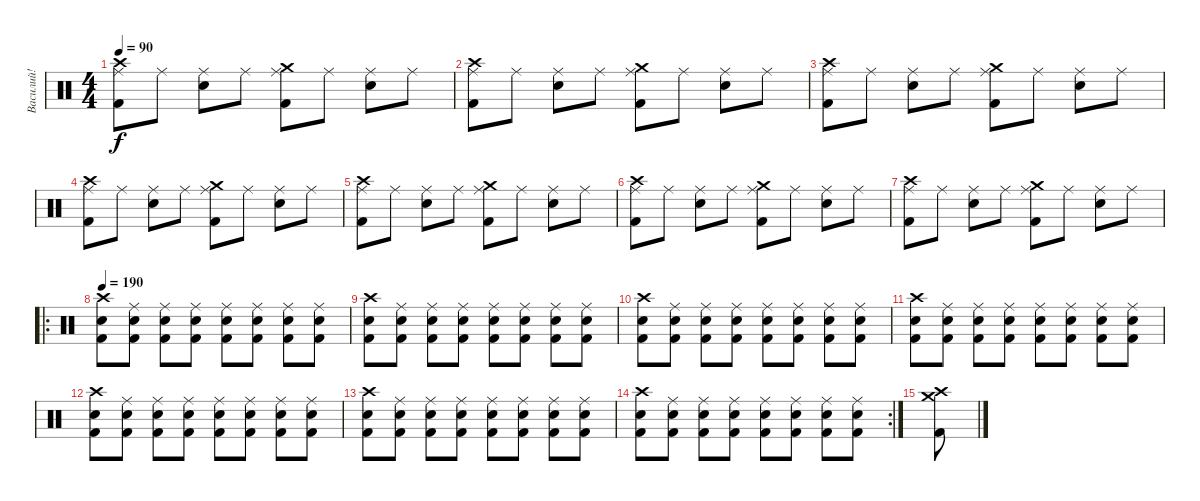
\track ("Василий!" "Василий!") {instrument percussion}
\staff {score}
\articulation defaults
\ts (4 4)
\tempo 90
\clef neutral
\ks c
("Ride (middle)" "Kick (hit) 2" "Crash high (hit)").8{dy f} "Ride (middle)".8 ("Ride (middle)" "Electric Snare (hit)").8 "Ride (middle)".8 ("Ride (middle)" "Kick (hit) 2" "Crash medium (hit)").8 "Ride (middle)".8 ("Ride (middle)" "Electric Snare (hit)").8 "Ride (middle)".8 |
("Ride (middle)" "Kick (hit) 2" "Crash high (hit)").8 "Ride (middle)".8 ("Ride (middle)" "Electric Snare (hit)").8 "Ride (middle)".8 ("Ride (middle)" "Kick (hit) 2" "Crash medium (hit)").8 "Ride (middle)".8 ("Ride (middle)" "Electric Snare (hit)").8 "Ride (middle)".8 |
("Ride (middle)" "Kick (hit) 2" "Crash high (hit)").8 "Ride (middle)".8 ("Ride (middle)" "Electric Snare (hit)").8 "Ride (middle)".8 ("Ride (middle)" "Kick (hit) 2" "Crash medium (hit)").8 "Ride (middle)".8 ("Ride (middle)" "Electric Snare (hit)").8 "Ride (middle)".8 |
("Ride (middle)" "Kick (hit) 2" "Crash high (hit)").8 "Ride (middle)".8 ("Ride (middle)" "Electric Snare (hit)").8 "Ride (middle)".8 ("Ride (middle)" "Kick (hit) 2" "Crash medium (hit)").8 "Ride (middle)".8 ("Ride (middle)" "Electric Snare (hit)").8 "Ride (middle)".8 |
("Ride (middle)" "Kick (hit) 2" "Crash high (hit)").8 "Ride (middle)".8 ("Ride (middle)" "Electric Snare (hit)").8 "Ride (middle)".8 ("Ride (middle)" "Kick (hit) 2" "Crash medium (hit)").8 "Ride (middle)".8 ("Ride (middle)" "Electric Snare (hit)").8 "Ride (middle)".8 |
("Ride (middle)" "Kick (hit) 2" "Crash high (hit)").8 "Ride (middle)".8 ("Ride (middle)" "Electric Snare (hit)").8 "Ride (middle)".8 ("Ride (middle)" "Kick (hit) 2" "Crash medium (hit)").8 "Ride (middle)".8 ("Ride (middle)" "Electric Snare (hit)").8 "Ride (middle)".8 |
("Ride (middle)" "Kick (hit) 2" "Crash high (hit)").8 "Ride (middle)".8 ("Ride (middle)" "Electric Snare (hit)").8 "Ride (middle)".8 ("Ride (middle)" "Kick (hit) 2" "Crash medium (hit)").8 "Ride (middle)".8 ("Ride (middle)" "Electric Snare (hit)").8 "Ride (middle)".8 |
\ro
\tempo 190
("Kick (hit) 2" "Electric Snare (hit)" "Crash high (hit)").8 ("Kick (hit) 2" "Electric Snare (hit)" "Ride (middle)").8 ("Kick (hit) 2" "Electric Snare (hit)" "Ride (middle)").8 ("Kick (hit) 2" "Electric Snare (hit)" "Ride (middle)").8 ("Kick (hit) 2" "Electric Snare (hit)" "Ride (middle)").8 ("Kick (hit) 2" "Electric Snare (hit)" "Ride (middle)").8 ("Kick (hit) 2" "Electric Snare (hit)" "Ride (middle)").8 ("Kick (hit) 2" "Electric Snare (hit)" "Ride (middle)").8 |
("Kick (hit) 2" "Electric Snare (hit)" "Crash high (hit)").8 ("Kick (hit) 2" "Electric Snare (hit)" "Ride (middle)").8 ("Kick (hit) 2" "Electric Snare (hit)" "Ride (middle)").8 ("Kick (hit) 2" "Electric Snare (hit)" "Ride (middle)").8 ("Kick (hit) 2" "Electric Snare (hit)" "Ride (middle)").8 ("Kick (hit) 2" "Electric Snare (hit)" "Ride (middle)").8 ("Kick (hit) 2" "Electric Snare (hit)" "Ride (middle)").8 ("Kick (hit) 2" "Electric Snare (hit)" "Ride (middle)").8 |
("Kick (hit) 2" "Electric Snare (hit)" "Crash high (hit)").8 ("Kick (hit) 2" "Electric Snare (hit)" "Ride (middle)").8 ("Kick (hit) 2" "Electric Snare (hit)" "Ride (middle)").8 ("Kick (hit) 2" "Electric Snare (hit)" "Ride (middle)").8 ("Kick (hit) 2" "Electric Snare (hit)" "Ride (middle)").8 ("Kick (hit) 2" "Electric Snare (hit)" "Ride (middle)").8 ("Kick (hit) 2" "Electric Snare (hit)" "Ride (middle)").8 ("Kick (hit) 2" "Electric Snare (hit)" "Ride (middle)").8 |
("Kick (hit) 2" "Electric Snare (hit)" "Crash high (hit)").8 ("Kick (hit) 2" "Electric Snare (hit)" "Ride (middle)").8 ("Kick (hit) 2" "Electric Snare (hit)" "Ride (middle)").8 ("Kick (hit) 2" "Electric Snare (hit)" "Ride (middle)").8 ("Kick (hit) 2" "Electric Snare (hit)" "Ride (middle)").8 ("Kick (hit) 2" "Electric Snare (hit)" "Ride (middle)").8 ("Kick (hit) 2" "Electric Snare (hit)" "Ride (middle)").8 ("Kick (hit) 2" "Electric Snare (hit)" "Ride (middle)").8 |
("Kick (hit) 2" "Electric Snare (hit)" "Crash high (hit)").8 ("Kick (hit) 2" "Electric Snare (hit)" "Ride (middle)").8 ("Kick (hit) 2" "Electric Snare (hit)" "Ride (middle)").8 ("Kick (hit) 2" "Electric Snare (hit)" "Ride (middle)").8 ("Kick (hit) 2" "Electric Snare (hit)" "Ride (middle)").8 ("Kick (hit) 2" "Electric Snare (hit)" "Ride (middle)").8 ("Kick (hit) 2" "Electric Snare (hit)" "Ride (middle)").8 ("Kick (hit) 2" "Electric Snare (hit)" "Ride (middle)").8 |
("Kick (hit) 2" "Electric Snare (hit)" "Crash high (hit)").8 ("Kick (hit) 2" "Electric Snare (hit)" "Ride (middle)").8 ("Kick (hit) 2" "Electric Snare (hit)" "Ride (middle)").8 ("Kick (hit) 2" "Electric Snare (hit)" "Ride (middle)").8 ("Kick (hit) 2" "Electric Snare (hit)" "Ride (middle)").8 ("Kick (hit) 2" "Electric Snare (hit)" "Ride (middle)").8 ("Kick (hit) 2" "Electric Snare (hit)" "Ride (middle)").8 ("Kick (hit) 2" "Electric Snare (hit)" "Ride (middle)").8 |
\rc 2
("Kick (hit) 2" "Electric Snare (hit)" "Crash high (hit)").8 ("Kick (hit) 2" "Electric Snare (hit)" "Ride (middle)").8 ("Kick (hit) 2" "Electric Snare (hit)" "Ride (middle)").8 ("Kick (hit) 2" "Electric Snare (hit)" "Ride (middle)").8 ("Kick (hit) 2" "Electric Snare (hit)" "Ride (middle)").8 ("Kick (hit) 2" "Electric Snare (hit)" "Ride (middle)").8 ("Kick (hit) 2" "Electric Snare (hit)" "Ride (middle)").8 ("Kick (hit) 2" "Electric Snare (hit)" "Ride (middle)").8 |
("Kick (hit) 2" "Crash high (hit)" "Crash medium (hit)").8
